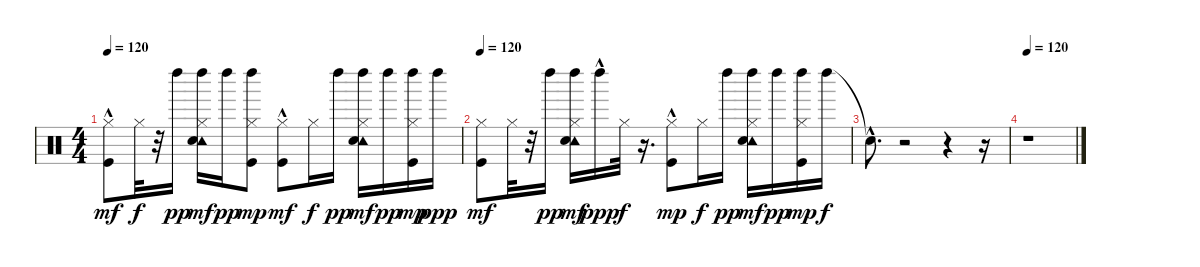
\track "" {instrument percussion}
\staff {score}
\articulation defaults
\ts (4 4)
\tempo 120
\clef neutral
\ks c
("Kick (hit)"{hac} "Hi-Hat (closed)").8{dy mf} "Hi-Hat (closed)".32{dy f} r.32 "Left Maraca (hit)".16{dy pp} ("Left Maraca (hit)" "Tambourine (hit)" "Hi-Hat (closed)" "Electric Snare (hit)").16{dy mf} "Left Maraca (hit)".16{dy pp} ("Left Maraca (hit)" "Hi-Hat (closed)" "Kick (hit)").8{dy mp} ("Kick (hit)"{hac} "Hi-Hat (closed)").8{dy mf} "Hi-Hat (closed)".16{dy f} "Left Maraca (hit)".16{dy pp} ("Left Maraca (hit)" "Tambourine (hit)" "Electric Snare (hit)" "Hi-Hat (closed)").16{dy mf} "Left Maraca (hit)".16{dy pp} ("Left Maraca (hit)" "Kick (hit)" "Hi-Hat (closed)").16{dy mp} "Left Maraca (hit)".16{dy ppp} |
\tempo 120
("Kick (hit)" "Hi-Hat (closed)").8{dy mf} "Hi-Hat (closed)".32 r.32 "Left Maraca (hit)".16{dy pp} ("Left Maraca (hit)" "Tambourine (hit)" "Electric Snare (hit)" "Hi-Hat (closed)").16{dy mf} "Left Maraca (hit)"{hac}.16{dy ppp} "Hi-Hat (closed)".32{dy f} r.16{d} ("Hi-Hat (closed)" "Kick (hit)"{hac}).8{dy mp} "Hi-Hat (closed)".16{dy f} "Left Maraca (hit)".16{dy pp} ("Left Maraca (hit)" "Tambourine (hit)" "Electric Snare (hit)" "Hi-Hat (closed)").16{dy mf} "Left Maraca (hit)".16{dy pp} ("Left Maraca (hit)" "Kick (hit)" "Hi-Hat (closed)").16{dy mp} "Left Maraca (hit)".16{dy f} |
"Snare (hit)"{hac t}.8{d} r.2 r.4 r.16 |
\tempo 120
r.1
